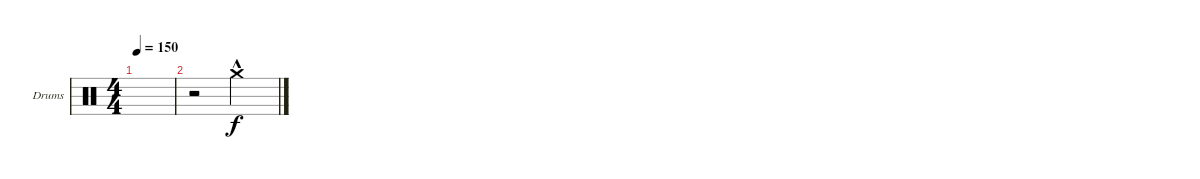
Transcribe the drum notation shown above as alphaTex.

\bracketExtendMode groupsimilarinstruments
\firstSystemTrackNameOrientation horizontal
\otherSystemsTrackNameOrientation horizontal
\track ("Reverse Cymbal" "Drums") {instrument percussion}
\staff {score}
\articulation defaults
\ts (4 4)
\tempo 150
\clef neutral
\scale
0.333333
\ks aminor
|
\scale
0.333333 r.2 "Crash medium (hit)"{hac}.2 |
\scale
0.333333 |
\scale
0.333333 |
\scale
0.333333 |
\scale
0.333333 |
\scale
0.333333 |
\scale
0.333333 |
\scale
0.333333 |
\scale
0.333333 |
\scale
0.333333 |
\scale
0.333333 |
\scale
0.333333 |
\scale
0.333333 |
\scale
0.333333 |
\scale
0.333333
